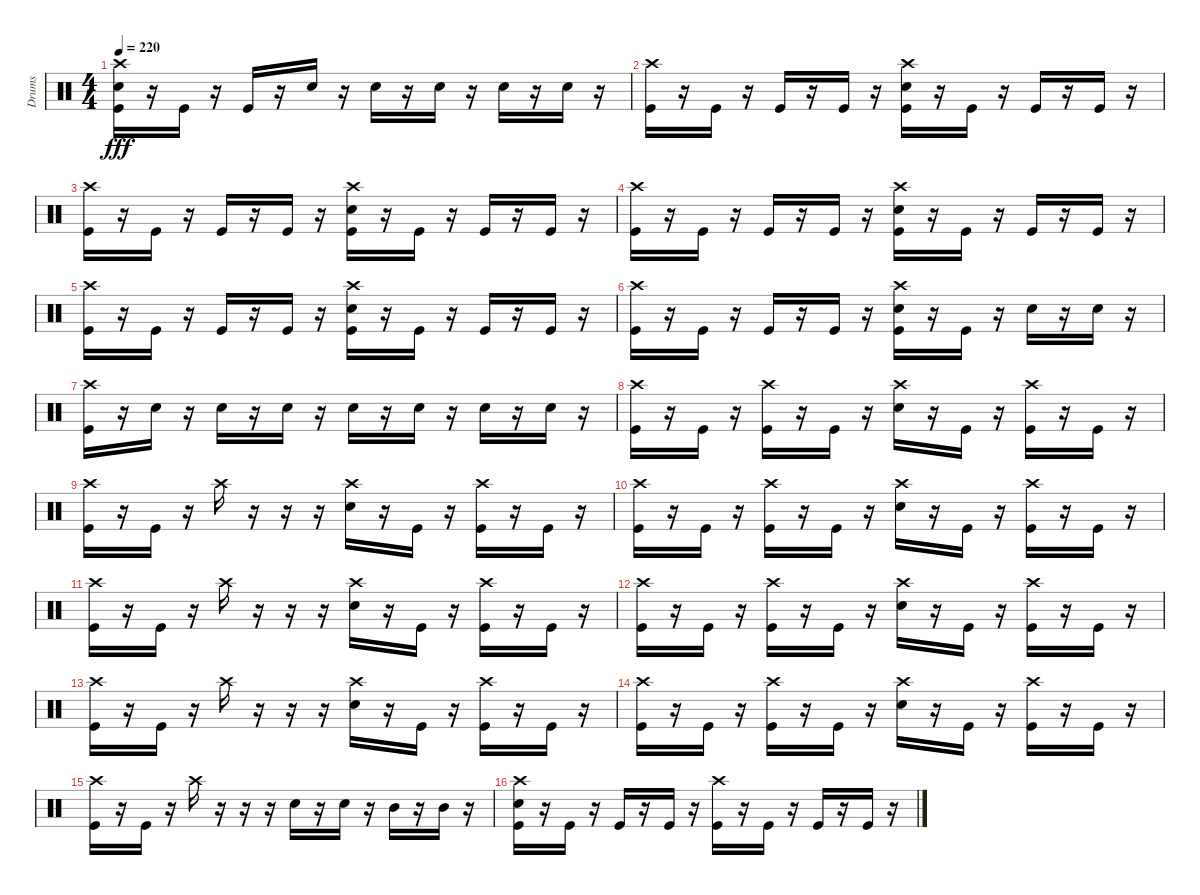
\track ("Drums" "Drums") {instrument percussion}
\staff {score}
\articulation defaults
\ts (4 4)
\tempo 220
\clef neutral
\ks c
("Crash high (hit)" "Electric Snare (hit)" "Kick (hit)").16{dy fff} r.16 "Kick (hit)".16 r.16 "Kick (hit)".16 r.16 "Electric Snare (hit)".16 r.16 "Electric Snare (hit)".16 r.16 "Electric Snare (hit)".16 r.16 "Electric Snare (hit)".16 r.16 "Electric Snare (hit)".16 r.16 |
("Crash high (hit)" "Kick (hit)").16 r.16 "Kick (hit)".16 r.16 "Kick (hit)".16 r.16 "Kick (hit)".16 r.16 ("Crash high (hit)" "Electric Snare (hit)" "Kick (hit)").16 r.16 "Kick (hit)".16 r.16 "Kick (hit)".16 r.16 "Kick (hit)".16 r.16 |
("Crash high (hit)" "Kick (hit)").16 r.16 "Kick (hit)".16 r.16 "Kick (hit)".16 r.16 "Kick (hit)".16 r.16 ("Crash high (hit)" "Electric Snare (hit)" "Kick (hit)").16 r.16 "Kick (hit)".16 r.16 "Kick (hit)".16 r.16 "Kick (hit)".16 r.16 |
("Crash high (hit)" "Kick (hit)").16 r.16 "Kick (hit)".16 r.16 "Kick (hit)".16 r.16 "Kick (hit)".16 r.16 ("Crash high (hit)" "Electric Snare (hit)" "Kick (hit)").16 r.16 "Kick (hit)".16 r.16 "Kick (hit)".16 r.16 "Kick (hit)".16 r.16 |
("Crash high (hit)" "Kick (hit)").16 r.16 "Kick (hit)".16 r.16 "Kick (hit)".16 r.16 "Kick (hit)".16 r.16 ("Crash high (hit)" "Electric Snare (hit)" "Kick (hit)").16 r.16 "Kick (hit)".16 r.16 "Kick (hit)".16 r.16 "Kick (hit)".16 r.16 |
("Crash high (hit)" "Kick (hit)").16 r.16 "Kick (hit)".16 r.16 "Kick (hit)".16 r.16 "Kick (hit)".16 r.16 ("Crash high (hit)" "Electric Snare (hit)" "Kick (hit)").16 r.16 "Kick (hit)".16 r.16 "Electric Snare (hit)".16 r.16 "Electric Snare (hit)".16 r.16 |
("Crash high (hit)" "Kick (hit)").16 r.16 "Electric Snare (hit)".16 r.16 "Electric Snare (hit)".16 r.16 "Electric Snare (hit)".16 r.16 "Electric Snare (hit)".16 r.16 "Electric Snare (hit)".16 r.16 "Electric Snare (hit)".16 r.16 "Electric Snare (hit)".16 r.16 |
("Crash high (hit)" "Kick (hit)").16 r.16 "Kick (hit)".16 r.16 ("Crash high (hit)" "Kick (hit)").16 r.16 "Kick (hit)".16 r.16 ("Crash high (hit)" "Electric Snare (hit)").16 r.16 "Kick (hit)".16 r.16 ("Crash high (hit)" "Kick (hit)").16 r.16 "Kick (hit)".16 r.16 |
("Crash high (hit)" "Kick (hit)").16 r.16 "Kick (hit)".16 r.16 "Crash high (hit)".16 r.16 r.16 r.16 ("Crash high (hit)" "Electric Snare (hit)").16 r.16 "Kick (hit)".16 r.16 ("Crash high (hit)" "Kick (hit)").16 r.16 "Kick (hit)".16 r.16 |
("Crash high (hit)" "Kick (hit)").16 r.16 "Kick (hit)".16 r.16 ("Crash high (hit)" "Kick (hit)").16 r.16 "Kick (hit)".16 r.16 ("Crash high (hit)" "Electric Snare (hit)").16 r.16 "Kick (hit)".16 r.16 ("Crash high (hit)" "Kick (hit)").16 r.16 "Kick (hit)".16 r.16 |
("Crash high (hit)" "Kick (hit)").16 r.16 "Kick (hit)".16 r.16 "Crash high (hit)".16 r.16 r.16 r.16 ("Crash high (hit)" "Electric Snare (hit)").16 r.16 "Kick (hit)".16 r.16 ("Crash high (hit)" "Kick (hit)").16 r.16 "Kick (hit)".16 r.16 |
("Crash high (hit)" "Kick (hit)").16 r.16 "Kick (hit)".16 r.16 ("Crash high (hit)" "Kick (hit)").16 r.16 "Kick (hit)".16 r.16 ("Crash high (hit)" "Electric Snare (hit)").16 r.16 "Kick (hit)".16 r.16 ("Crash high (hit)" "Kick (hit)").16 r.16 "Kick (hit)".16 r.16 |
("Crash high (hit)" "Kick (hit)").16 r.16 "Kick (hit)".16 r.16 "Crash high (hit)".16 r.16 r.16 r.16 ("Crash high (hit)" "Electric Snare (hit)").16 r.16 "Kick (hit)".16 r.16 ("Crash high (hit)" "Kick (hit)").16 r.16 "Kick (hit)".16 r.16 |
("Crash high (hit)" "Kick (hit)").16 r.16 "Kick (hit)".16 r.16 ("Crash high (hit)" "Kick (hit)").16 r.16 "Kick (hit)".16 r.16 ("Crash high (hit)" "Electric Snare (hit)").16 r.16 "Kick (hit)".16 r.16 ("Crash high (hit)" "Kick (hit)").16 r.16 "Kick (hit)".16 r.16 |
("Crash high (hit)" "Kick (hit)").16 r.16 "Kick (hit)".16 r.16 "Crash high (hit)".16 r.16 r.16 r.16 "Electric Snare (hit)".16 r.16 "Electric Snare (hit)".16 r.16 "Mid Tom (hit)".16 r.16 "Mid Tom (hit)".16 r.16 |
("Crash high (hit)" "Electric Snare (hit)" "Kick (hit)").16 r.16 "Kick (hit)".16 r.16 "Kick (hit)".16 r.16 "Kick (hit)".16 r.16 ("Crash high (hit)" "Kick (hit)").16 r.16 "Kick (hit)".16 r.16 "Kick (hit)".16 r.16 "Kick (hit)".16 r.16
